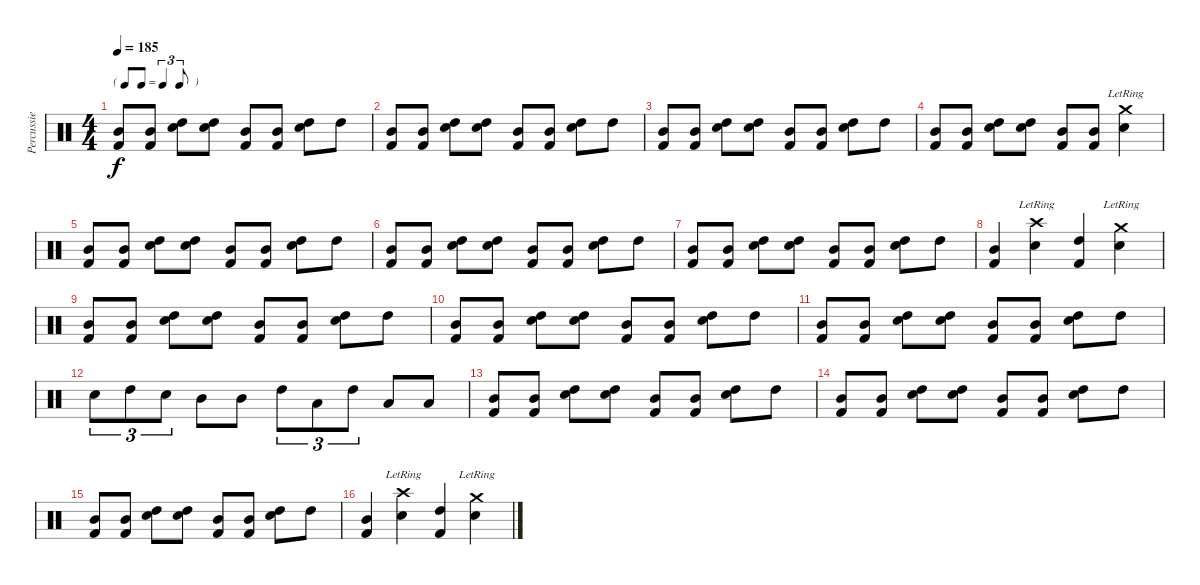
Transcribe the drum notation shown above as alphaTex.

\track ("Percussie" "Percussie") {instrument percussion}
\staff {score}
\articulation defaults
\ts (4 4)
\tf triplet8th
\tempo 185
\clef neutral
\ks c
("Mid Tom (hit)" "Kick (hit) 2").8{dy f} ("Mid Tom (hit)" "Kick (hit) 2").8 ("High Tom (hit)" "Snare (hit) 2").8 ("High Tom (hit)" "Snare (hit) 2").8 ("Mid Tom (hit)" "Kick (hit) 2").8 ("Mid Tom (hit)" "Kick (hit) 2").8 ("High Tom (hit)" "Snare (hit) 2").8 "High Tom (hit)".8 |
("Mid Tom (hit)" "Kick (hit) 2").8 ("Mid Tom (hit)" "Kick (hit) 2").8 ("High Tom (hit)" "Snare (hit) 2").8 ("High Tom (hit)" "Snare (hit) 2").8 ("Mid Tom (hit)" "Kick (hit) 2").8 ("Mid Tom (hit)" "Kick (hit) 2").8 ("High Tom (hit)" "Snare (hit) 2").8 "High Tom (hit)".8 |
("Mid Tom (hit)" "Kick (hit) 2").8 ("Mid Tom (hit)" "Kick (hit) 2").8 ("High Tom (hit)" "Snare (hit) 2").8 ("High Tom (hit)" "Snare (hit) 2").8 ("Mid Tom (hit)" "Kick (hit) 2").8 ("Mid Tom (hit)" "Kick (hit) 2").8 ("High Tom (hit)" "Snare (hit) 2").8 "High Tom (hit)".8 |
("Mid Tom (hit)" "Kick (hit) 2").8 ("Mid Tom (hit)" "Kick (hit) 2").8 ("High Tom (hit)" "Snare (hit) 2").8 ("High Tom (hit)" "Snare (hit) 2").8 ("Mid Tom (hit)" "Kick (hit) 2").8 ("Mid Tom (hit)" "Kick (hit) 2").8 ("Crash medium (hit)"{lr} "Snare (hit) 2").4 |
("Mid Tom (hit)" "Kick (hit) 2").8 ("Mid Tom (hit)" "Kick (hit) 2").8 ("High Tom (hit)" "Snare (hit) 2").8 ("High Tom (hit)" "Snare (hit) 2").8 ("Mid Tom (hit)" "Kick (hit) 2").8 ("Mid Tom (hit)" "Kick (hit) 2").8 ("High Tom (hit)" "Snare (hit) 2").8 "High Tom (hit)".8 |
("Mid Tom (hit)" "Kick (hit) 2").8 ("Mid Tom (hit)" "Kick (hit) 2").8 ("High Tom (hit)" "Snare (hit) 2").8 ("High Tom (hit)" "Snare (hit) 2").8 ("Mid Tom (hit)" "Kick (hit) 2").8 ("Mid Tom (hit)" "Kick (hit) 2").8 ("High Tom (hit)" "Snare (hit) 2").8 "High Tom (hit)".8 |
("Mid Tom (hit)" "Kick (hit) 2").8 ("Mid Tom (hit)" "Kick (hit) 2").8 ("High Tom (hit)" "Snare (hit) 2").8 ("High Tom (hit)" "Snare (hit) 2").8 ("Mid Tom (hit)" "Kick (hit) 2").8 ("Mid Tom (hit)" "Kick (hit) 2").8 ("High Tom (hit)" "Snare (hit) 2").8 "High Tom (hit)".8 |
("Mid Tom (hit)" "Kick (hit) 2").4 ("Crash high (hit)"{lr} "Snare (hit) 2").4 ("High Tom (hit)" "Kick (hit) 2").4 ("Crash medium (hit)"{lr} "Snare (hit) 2").4 |
("Mid Tom (hit)" "Kick (hit) 2").8 ("Mid Tom (hit)" "Kick (hit) 2").8 ("High Tom (hit)" "Snare (hit) 2").8 ("High Tom (hit)" "Snare (hit) 2").8 ("Mid Tom (hit)" "Kick (hit) 2").8 ("Mid Tom (hit)" "Kick (hit) 2").8 ("High Tom (hit)" "Snare (hit) 2").8 "High Tom (hit)".8 |
("Mid Tom (hit)" "Kick (hit) 2").8 ("Mid Tom (hit)" "Kick (hit) 2").8 ("High Tom (hit)" "Snare (hit) 2").8 ("High Tom (hit)" "Snare (hit) 2").8 ("Mid Tom (hit)" "Kick (hit) 2").8 ("Mid Tom (hit)" "Kick (hit) 2").8 ("High Tom (hit)" "Snare (hit) 2").8 "High Tom (hit)".8 |
("Mid Tom (hit)" "Kick (hit) 2").8 ("Mid Tom (hit)" "Kick (hit) 2").8 ("High Tom (hit)" "Snare (hit) 2").8 ("High Tom (hit)" "Snare (hit) 2").8 ("Mid Tom (hit)" "Kick (hit) 2").8 ("Mid Tom (hit)" "Kick (hit) 2").8 ("High Tom (hit)" "Snare (hit) 2").8 "High Tom (hit)".8 |
"Snare (hit) 2".8{tu (3 2)} "High Tom (hit)".8{tu (3 2)} "Snare (hit) 2".8{tu (3 2)} "Mid Tom (hit)".8 "Mid Tom (hit)".8 "High Tom (hit)".8{tu (3 2)} "Low Tom (hit)".8{tu (3 2)} "High Tom (hit)".8{tu (3 2)} "Low Tom (hit)".8 "Low Tom (hit)".8 |
("Mid Tom (hit)" "Kick (hit) 2").8 ("Mid Tom (hit)" "Kick (hit) 2").8 ("High Tom (hit)" "Snare (hit) 2").8 ("High Tom (hit)" "Snare (hit) 2").8 ("Mid Tom (hit)" "Kick (hit) 2").8 ("Mid Tom (hit)" "Kick (hit) 2").8 ("High Tom (hit)" "Snare (hit) 2").8 "High Tom (hit)".8 |
("Mid Tom (hit)" "Kick (hit) 2").8 ("Mid Tom (hit)" "Kick (hit) 2").8 ("High Tom (hit)" "Snare (hit) 2").8 ("High Tom (hit)" "Snare (hit) 2").8 ("Mid Tom (hit)" "Kick (hit) 2").8 ("Mid Tom (hit)" "Kick (hit) 2").8 ("High Tom (hit)" "Snare (hit) 2").8 "High Tom (hit)".8 |
("Mid Tom (hit)" "Kick (hit) 2").8 ("Mid Tom (hit)" "Kick (hit) 2").8 ("High Tom (hit)" "Snare (hit) 2").8 ("High Tom (hit)" "Snare (hit) 2").8 ("Mid Tom (hit)" "Kick (hit) 2").8 ("Mid Tom (hit)" "Kick (hit) 2").8 ("High Tom (hit)" "Snare (hit) 2").8 "High Tom (hit)".8 |
("Mid Tom (hit)" "Kick (hit) 2").4 ("Crash high (hit)"{lr} "Snare (hit) 2").4 ("High Tom (hit)" "Kick (hit) 2").4 ("Crash medium (hit)"{lr} "Snare (hit) 2").4
